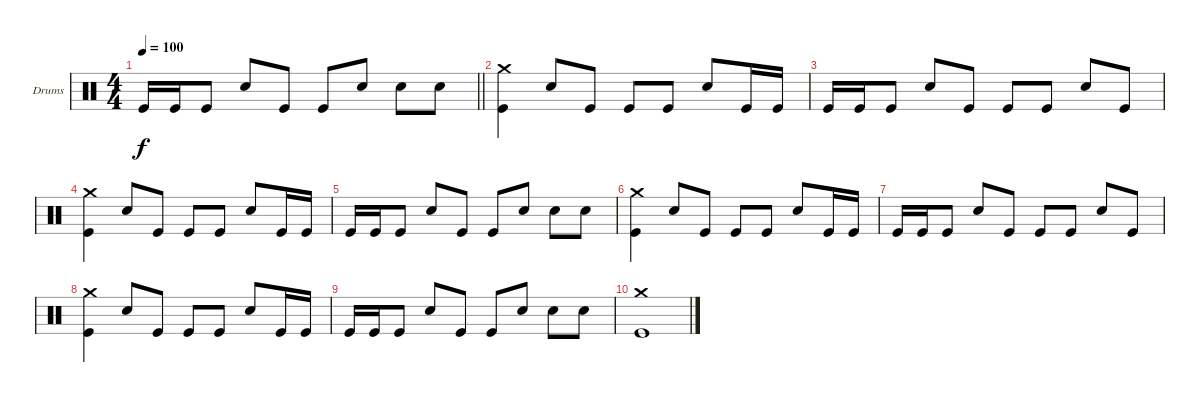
\bracketExtendMode groupsimilarinstruments
\firstSystemTrackNameOrientation horizontal
\otherSystemsTrackNameOrientation horizontal
\track ("Drumkit" "Drums") {instrument percussion}
\staff {score}
\articulation defaults
\ts (4 4)
\tempo 100
\clef neutral
\barLineRight lightlight
\ks c "Kick (hit)".16{dy f} "Kick (hit)".16 "Kick (hit)".8 "Snare (hit) 2".8 "Kick (hit)".8 "Kick (hit)".8 "Snare (hit) 2".8 "Snare (hit) 2".8 "Snare (hit) 2".8
|
("Crash medium (hit)" "Kick (hit)").4 "Snare (hit) 2".8 "Kick (hit)".8 "Kick (hit)".8 "Kick (hit)".8 "Snare (hit) 2".8 "Kick (hit)".16 "Kick (hit)".16 |
"Kick (hit)".16 "Kick (hit)".16 "Kick (hit)".8 "Snare (hit) 2".8 "Kick (hit)".8 "Kick (hit)".8 "Kick (hit)".8 "Snare (hit) 2".8 "Kick (hit)".8 |
("Crash medium (hit)" "Kick (hit)").4 "Snare (hit) 2".8 "Kick (hit)".8 "Kick (hit)".8 "Kick (hit)".8 "Snare (hit) 2".8 "Kick (hit)".16 "Kick (hit)".16 |
"Kick (hit)".16 "Kick (hit)".16 "Kick (hit)".8 "Snare (hit) 2".8 "Kick (hit)".8 "Kick (hit)".8 "Snare (hit) 2".8 "Snare (hit) 2".8 "Snare (hit) 2".8 |
("Crash medium (hit)" "Kick (hit)").4 "Snare (hit) 2".8 "Kick (hit)".8 "Kick (hit)".8 "Kick (hit)".8 "Snare (hit) 2".8 "Kick (hit)".16 "Kick (hit)".16 |
"Kick (hit)".16 "Kick (hit)".16 "Kick (hit)".8 "Snare (hit) 2".8 "Kick (hit)".8 "Kick (hit)".8 "Kick (hit)".8 "Snare (hit) 2".8 "Kick (hit)".8 |
("Crash medium (hit)" "Kick (hit)").4 "Snare (hit) 2".8 "Kick (hit)".8 "Kick (hit)".8 "Kick (hit)".8 "Snare (hit) 2".8 "Kick (hit)".16 "Kick (hit)".16 |
"Kick (hit)".16 "Kick (hit)".16 "Kick (hit)".8 "Snare (hit) 2".8 "Kick (hit)".8 "Kick (hit)".8 "Snare (hit) 2".8 "Snare (hit) 2".8 "Snare (hit) 2".8 |
("Crash medium (hit)" "Kick (hit)").1
